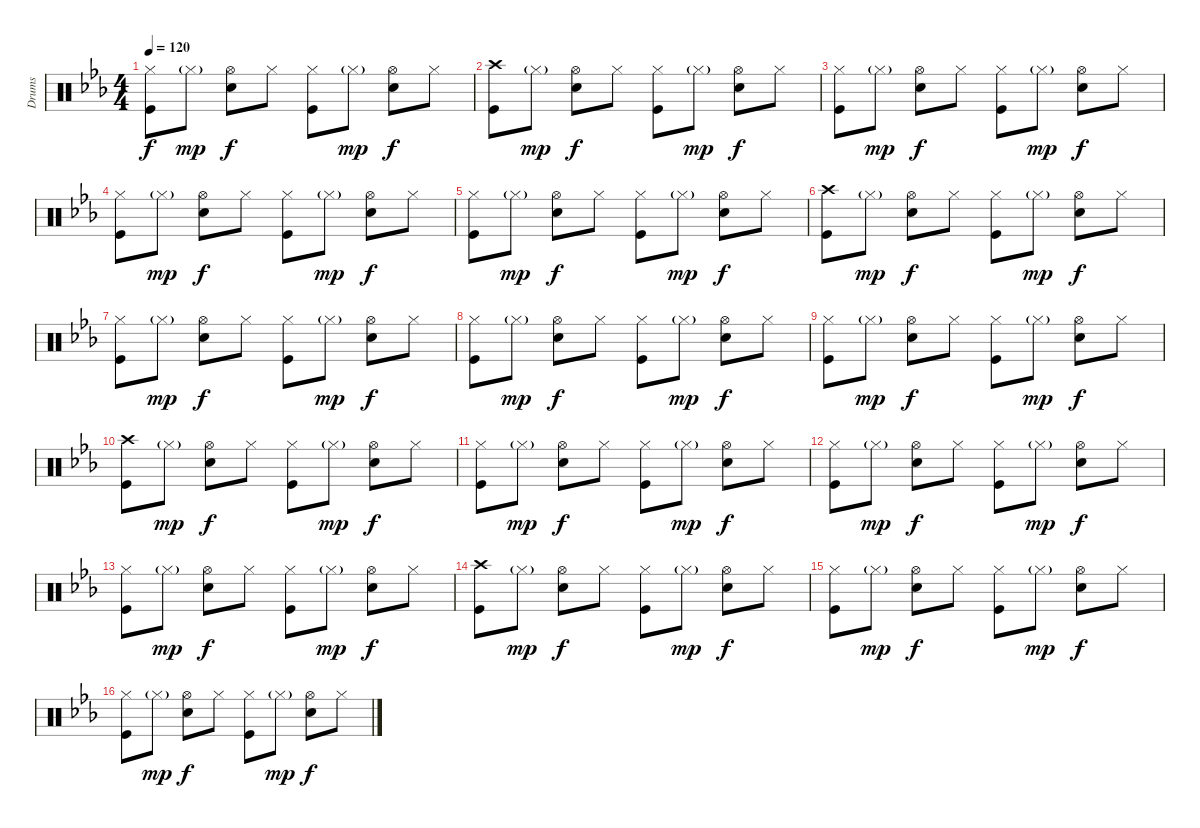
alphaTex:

\track ("Drums" "Drums") {instrument percussion}
\staff {score}
\articulation defaults
\ts (4 4)
\tempo 120
\clef neutral
\ks eb
("Hi-Hat (closed)" "Kick (hit)").8{dy f} "Hi-Hat (closed)"{g}.8{dy mp} ("Hi-Hat (open)" "Electric Snare (hit)").8{dy f} "Hi-Hat (closed)".8 ("Hi-Hat (closed)" "Kick (hit)").8 "Hi-Hat (closed)"{g}.8{dy mp} ("Hi-Hat (open)" "Electric Snare (hit)").8{dy f} "Hi-Hat (closed)".8 |
("Crash high (hit)" "Kick (hit)").8 "Hi-Hat (closed)"{g}.8{dy mp} ("Hi-Hat (open)" "Electric Snare (hit)").8{dy f} "Hi-Hat (closed)".8 ("Hi-Hat (closed)" "Kick (hit)").8 "Hi-Hat (closed)"{g}.8{dy mp} ("Hi-Hat (open)" "Electric Snare (hit)").8{dy f} "Hi-Hat (closed)".8 |
("Hi-Hat (closed)" "Kick (hit)").8 "Hi-Hat (closed)"{g}.8{dy mp} ("Hi-Hat (open)" "Electric Snare (hit)").8{dy f} "Hi-Hat (closed)".8 ("Hi-Hat (closed)" "Kick (hit)").8 "Hi-Hat (closed)"{g}.8{dy mp} ("Hi-Hat (open)" "Electric Snare (hit)").8{dy f} "Hi-Hat (closed)".8 |
("Hi-Hat (closed)" "Kick (hit)").8 "Hi-Hat (closed)"{g}.8{dy mp} ("Hi-Hat (open)" "Electric Snare (hit)").8{dy f} "Hi-Hat (closed)".8 ("Hi-Hat (closed)" "Kick (hit)").8 "Hi-Hat (closed)"{g}.8{dy mp} ("Hi-Hat (open)" "Electric Snare (hit)").8{dy f} "Hi-Hat (closed)".8 |
("Hi-Hat (closed)" "Kick (hit)").8 "Hi-Hat (closed)"{g}.8{dy mp} ("Hi-Hat (open)" "Electric Snare (hit)").8{dy f} "Hi-Hat (closed)".8 ("Hi-Hat (closed)" "Kick (hit)").8 "Hi-Hat (closed)"{g}.8{dy mp} ("Hi-Hat (open)" "Electric Snare (hit)").8{dy f} "Hi-Hat (closed)".8 |
("Crash high (hit)" "Kick (hit)").8 "Hi-Hat (closed)"{g}.8{dy mp} ("Hi-Hat (open)" "Electric Snare (hit)").8{dy f} "Hi-Hat (closed)".8 ("Hi-Hat (closed)" "Kick (hit)").8 "Hi-Hat (closed)"{g}.8{dy mp} ("Hi-Hat (open)" "Electric Snare (hit)").8{dy f} "Hi-Hat (closed)".8 |
("Hi-Hat (closed)" "Kick (hit)").8 "Hi-Hat (closed)"{g}.8{dy mp} ("Hi-Hat (open)" "Electric Snare (hit)").8{dy f} "Hi-Hat (closed)".8 ("Hi-Hat (closed)" "Kick (hit)").8 "Hi-Hat (closed)"{g}.8{dy mp} ("Hi-Hat (open)" "Electric Snare (hit)").8{dy f} "Hi-Hat (closed)".8 |
("Hi-Hat (closed)" "Kick (hit)").8 "Hi-Hat (closed)"{g}.8{dy mp} ("Hi-Hat (open)" "Electric Snare (hit)").8{dy f} "Hi-Hat (closed)".8 ("Hi-Hat (closed)" "Kick (hit)").8 "Hi-Hat (closed)"{g}.8{dy mp} ("Hi-Hat (open)" "Electric Snare (hit)").8{dy f} "Hi-Hat (closed)".8 |
("Hi-Hat (closed)" "Kick (hit)").8 "Hi-Hat (closed)"{g}.8{dy mp} ("Hi-Hat (open)" "Electric Snare (hit)").8{dy f} "Hi-Hat (closed)".8 ("Hi-Hat (closed)" "Kick (hit)").8 "Hi-Hat (closed)"{g}.8{dy mp} ("Hi-Hat (open)" "Electric Snare (hit)").8{dy f} "Hi-Hat (closed)".8 |
("Crash high (hit)" "Kick (hit)").8 "Hi-Hat (closed)"{g}.8{dy mp} ("Hi-Hat (open)" "Electric Snare (hit)").8{dy f} "Hi-Hat (closed)".8 ("Hi-Hat (closed)" "Kick (hit)").8 "Hi-Hat (closed)"{g}.8{dy mp} ("Hi-Hat (open)" "Electric Snare (hit)").8{dy f} "Hi-Hat (closed)".8 |
("Hi-Hat (closed)" "Kick (hit)").8 "Hi-Hat (closed)"{g}.8{dy mp} ("Hi-Hat (open)" "Electric Snare (hit)").8{dy f} "Hi-Hat (closed)".8 ("Hi-Hat (closed)" "Kick (hit)").8 "Hi-Hat (closed)"{g}.8{dy mp} ("Hi-Hat (open)" "Electric Snare (hit)").8{dy f} "Hi-Hat (closed)".8 |
("Hi-Hat (closed)" "Kick (hit)").8{volume 10} "Hi-Hat (closed)"{g}.8{dy mp} ("Hi-Hat (open)" "Electric Snare (hit)").8{dy f} "Hi-Hat (closed)".8 ("Hi-Hat (closed)" "Kick (hit)").8 "Hi-Hat (closed)"{g}.8{dy mp} ("Hi-Hat (open)" "Electric Snare (hit)").8{dy f} "Hi-Hat (closed)".8 |
("Hi-Hat (closed)" "Kick (hit)").8 "Hi-Hat (closed)"{g}.8{dy mp} ("Hi-Hat (open)" "Electric Snare (hit)").8{dy f} "Hi-Hat (closed)".8 ("Hi-Hat (closed)" "Kick (hit)").8 "Hi-Hat (closed)"{g}.8{dy mp} ("Hi-Hat (open)" "Electric Snare (hit)").8{dy f} "Hi-Hat (closed)".8 |
("Crash high (hit)" "Kick (hit)").8{volume 0} "Hi-Hat (closed)"{g}.8{dy mp} ("Hi-Hat (open)" "Electric Snare (hit)").8{dy f} "Hi-Hat (closed)".8 ("Hi-Hat (closed)" "Kick (hit)").8 "Hi-Hat (closed)"{g}.8{dy mp} ("Hi-Hat (open)" "Electric Snare (hit)").8{dy f} "Hi-Hat (closed)".8 |
("Hi-Hat (closed)" "Kick (hit)").8 "Hi-Hat (closed)"{g}.8{dy mp} ("Hi-Hat (open)" "Electric Snare (hit)").8{dy f} "Hi-Hat (closed)".8 ("Hi-Hat (closed)" "Kick (hit)").8 "Hi-Hat (closed)"{g}.8{dy mp} ("Hi-Hat (open)" "Electric Snare (hit)").8{dy f} "Hi-Hat (closed)".8 |
("Hi-Hat (closed)" "Kick (hit)").8 "Hi-Hat (closed)"{g}.8{dy mp} ("Hi-Hat (open)" "Electric Snare (hit)").8{dy f} "Hi-Hat (closed)".8 ("Hi-Hat (closed)" "Kick (hit)").8 "Hi-Hat (closed)"{g}.8{dy mp} ("Hi-Hat (open)" "Electric Snare (hit)").8{dy f} "Hi-Hat (closed)".8
